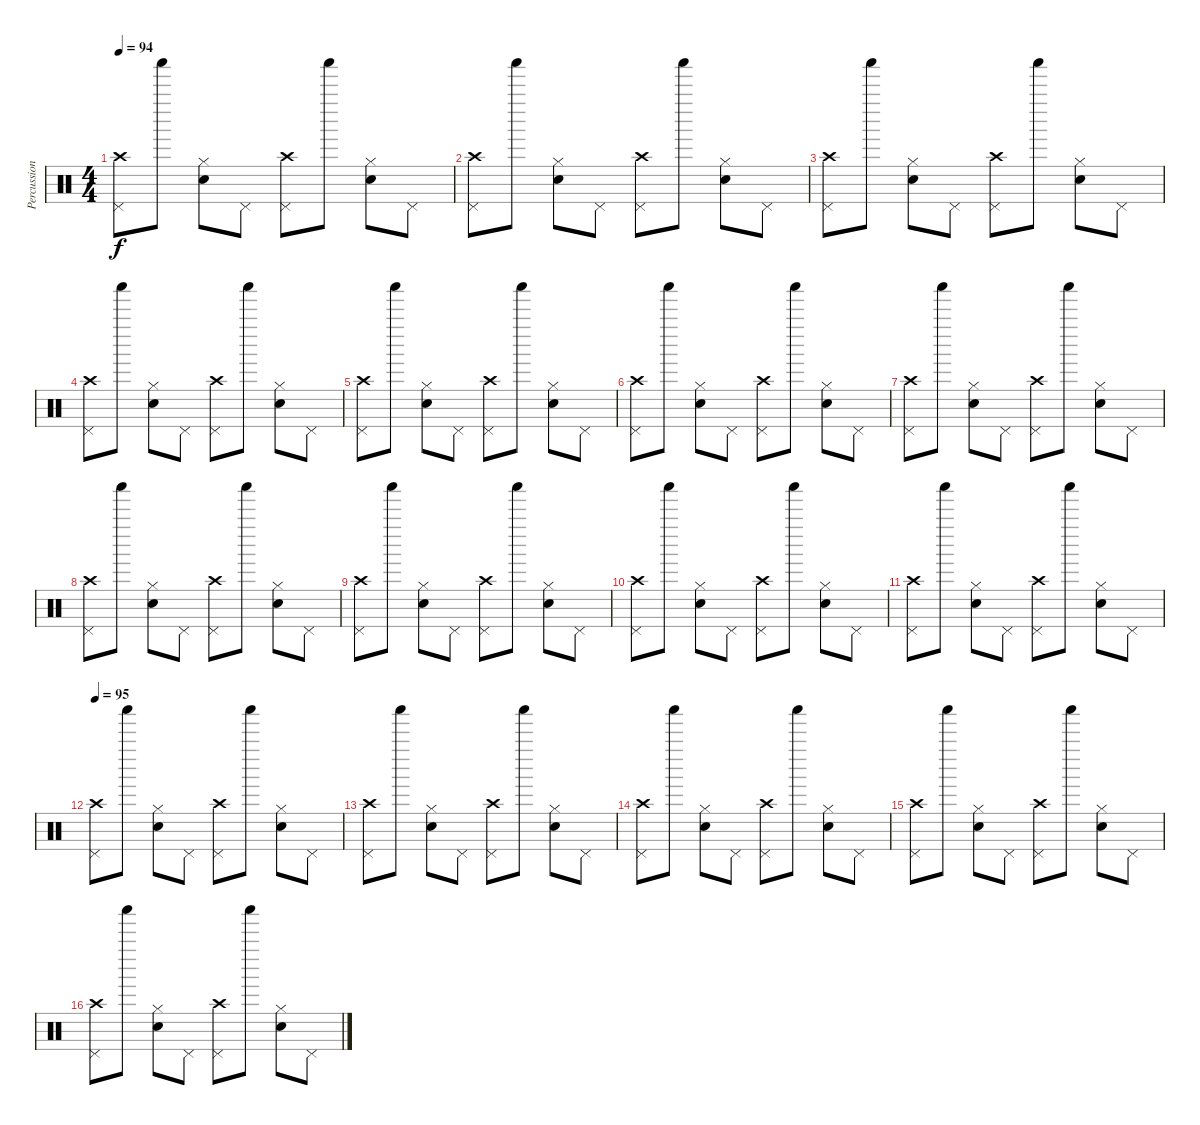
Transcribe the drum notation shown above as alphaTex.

\track ("Percussion" "Percussion") {instrument percussion}
\staff {score}
\articulation defaults
\ts (4 4)
\tempo 94
\clef neutral
\ks c
("Pedal Hi-Hat (hit)" "Crash high (hit)").8{dy f} "Shaker (hit)".8 ("Hi-Hat (closed)" "Electric Snare (hit)").8 "Pedal Hi-Hat (hit)".8 ("Pedal Hi-Hat (hit)" "Crash high (hit)").8 "Shaker (hit)".8 ("Hi-Hat (closed)" "Electric Snare (hit)").8 "Pedal Hi-Hat (hit)".8 |
("Pedal Hi-Hat (hit)" "Crash high (hit)").8 "Shaker (hit)".8 ("Hi-Hat (closed)" "Electric Snare (hit)").8 "Pedal Hi-Hat (hit)".8 ("Pedal Hi-Hat (hit)" "Crash high (hit)").8 "Shaker (hit)".8 ("Hi-Hat (closed)" "Electric Snare (hit)").8 "Pedal Hi-Hat (hit)".8 |
("Pedal Hi-Hat (hit)" "Crash high (hit)").8 "Shaker (hit)".8 ("Hi-Hat (closed)" "Electric Snare (hit)").8 "Pedal Hi-Hat (hit)".8 ("Pedal Hi-Hat (hit)" "Crash high (hit)").8 "Shaker (hit)".8 ("Hi-Hat (closed)" "Electric Snare (hit)").8 "Pedal Hi-Hat (hit)".8 |
("Pedal Hi-Hat (hit)" "Crash high (hit)").8 "Shaker (hit)".8 ("Hi-Hat (closed)" "Electric Snare (hit)").8 "Pedal Hi-Hat (hit)".8 ("Pedal Hi-Hat (hit)" "Crash high (hit)").8 "Shaker (hit)".8 ("Hi-Hat (closed)" "Electric Snare (hit)").8 "Pedal Hi-Hat (hit)".8 |
("Pedal Hi-Hat (hit)" "Crash high (hit)").8 "Shaker (hit)".8 ("Hi-Hat (closed)" "Electric Snare (hit)").8 "Pedal Hi-Hat (hit)".8 ("Pedal Hi-Hat (hit)" "Crash high (hit)").8 "Shaker (hit)".8 ("Hi-Hat (closed)" "Electric Snare (hit)").8 "Pedal Hi-Hat (hit)".8 |
("Pedal Hi-Hat (hit)" "Crash high (hit)").8 "Shaker (hit)".8 ("Hi-Hat (closed)" "Electric Snare (hit)").8 "Pedal Hi-Hat (hit)".8 ("Pedal Hi-Hat (hit)" "Crash high (hit)").8 "Shaker (hit)".8 ("Hi-Hat (closed)" "Electric Snare (hit)").8 "Pedal Hi-Hat (hit)".8 |
("Pedal Hi-Hat (hit)" "Crash high (hit)").8 "Shaker (hit)".8 ("Hi-Hat (closed)" "Electric Snare (hit)").8 "Pedal Hi-Hat (hit)".8 ("Pedal Hi-Hat (hit)" "Crash high (hit)").8 "Shaker (hit)".8 ("Hi-Hat (closed)" "Electric Snare (hit)").8 "Pedal Hi-Hat (hit)".8 |
("Pedal Hi-Hat (hit)" "Crash high (hit)").8 "Shaker (hit)".8 ("Hi-Hat (closed)" "Electric Snare (hit)").8 "Pedal Hi-Hat (hit)".8 ("Pedal Hi-Hat (hit)" "Crash high (hit)").8 "Shaker (hit)".8 ("Hi-Hat (closed)" "Electric Snare (hit)").8 "Pedal Hi-Hat (hit)".8 |
("Pedal Hi-Hat (hit)" "Crash high (hit)").8 "Shaker (hit)".8 ("Hi-Hat (closed)" "Electric Snare (hit)").8 "Pedal Hi-Hat (hit)".8 ("Pedal Hi-Hat (hit)" "Crash high (hit)").8 "Shaker (hit)".8 ("Hi-Hat (closed)" "Electric Snare (hit)").8 "Pedal Hi-Hat (hit)".8 |
("Pedal Hi-Hat (hit)" "Crash high (hit)").8 "Shaker (hit)".8 ("Hi-Hat (closed)" "Electric Snare (hit)").8 "Pedal Hi-Hat (hit)".8 ("Pedal Hi-Hat (hit)" "Crash high (hit)").8 "Shaker (hit)".8 ("Hi-Hat (closed)" "Electric Snare (hit)").8 "Pedal Hi-Hat (hit)".8 |
("Pedal Hi-Hat (hit)" "Crash high (hit)").8 "Shaker (hit)".8 ("Hi-Hat (closed)" "Electric Snare (hit)").8 "Pedal Hi-Hat (hit)".8 ("Pedal Hi-Hat (hit)" "Crash high (hit)").8 "Shaker (hit)".8 ("Hi-Hat (closed)" "Electric Snare (hit)").8 "Pedal Hi-Hat (hit)".8 |
\tempo 95
("Pedal Hi-Hat (hit)" "Crash high (hit)").8 "Shaker (hit)".8 ("Hi-Hat (closed)" "Electric Snare (hit)").8 "Pedal Hi-Hat (hit)".8 ("Pedal Hi-Hat (hit)" "Crash high (hit)").8 "Shaker (hit)".8 ("Hi-Hat (closed)" "Electric Snare (hit)").8 "Pedal Hi-Hat (hit)".8 |
("Pedal Hi-Hat (hit)" "Crash high (hit)").8 "Shaker (hit)".8 ("Hi-Hat (closed)" "Electric Snare (hit)").8 "Pedal Hi-Hat (hit)".8 ("Pedal Hi-Hat (hit)" "Crash high (hit)").8 "Shaker (hit)".8 ("Hi-Hat (closed)" "Electric Snare (hit)").8 "Pedal Hi-Hat (hit)".8 |
("Pedal Hi-Hat (hit)" "Crash high (hit)").8 "Shaker (hit)".8 ("Hi-Hat (closed)" "Electric Snare (hit)").8 "Pedal Hi-Hat (hit)".8 ("Pedal Hi-Hat (hit)" "Crash high (hit)").8 "Shaker (hit)".8 ("Hi-Hat (closed)" "Electric Snare (hit)").8 "Pedal Hi-Hat (hit)".8 |
("Pedal Hi-Hat (hit)" "Crash high (hit)").8 "Shaker (hit)".8 ("Hi-Hat (closed)" "Electric Snare (hit)").8 "Pedal Hi-Hat (hit)".8 ("Pedal Hi-Hat (hit)" "Crash high (hit)").8 "Shaker (hit)".8 ("Hi-Hat (closed)" "Electric Snare (hit)").8 "Pedal Hi-Hat (hit)".8 |
("Pedal Hi-Hat (hit)" "Crash high (hit)").8 "Shaker (hit)".8 ("Hi-Hat (closed)" "Electric Snare (hit)").8 "Pedal Hi-Hat (hit)".8 ("Pedal Hi-Hat (hit)" "Crash high (hit)").8 "Shaker (hit)".8 ("Hi-Hat (closed)" "Electric Snare (hit)").8 "Pedal Hi-Hat (hit)".8
